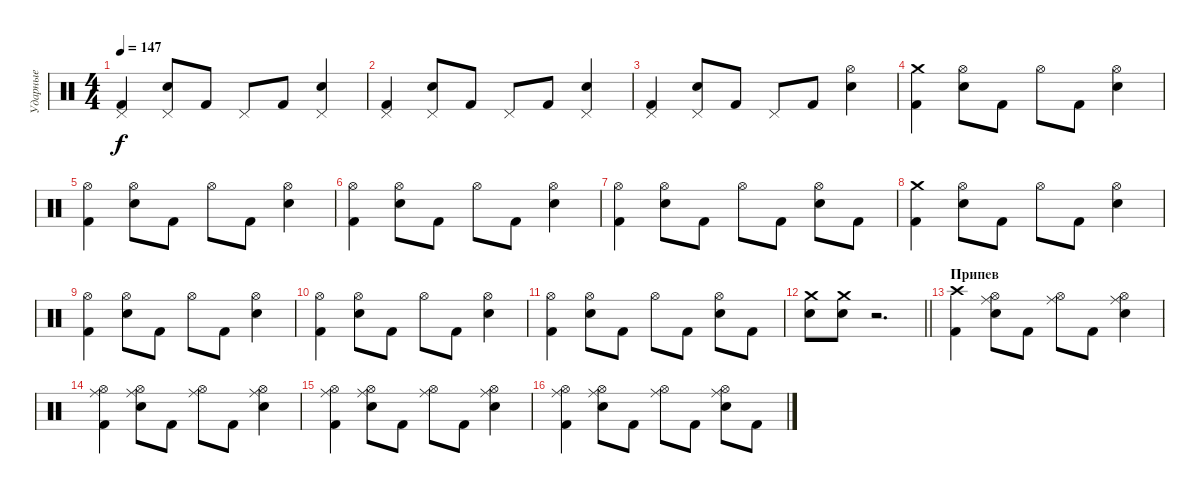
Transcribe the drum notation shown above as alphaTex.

\track ("Ударные" "Ударные") {instrument percussion}
\staff {score}
\articulation defaults
\ts (4 4)
\tempo 147
\clef neutral
\ks c
("Pedal Hi-Hat (hit)" "Kick (hit) 2").4{dy f} ("Pedal Hi-Hat (hit)" "Snare (hit) 2").8 "Kick (hit) 2".8 "Pedal Hi-Hat (hit)".8 "Kick (hit) 2".8 ("Pedal Hi-Hat (hit)" "Snare (hit) 2").4 |
("Pedal Hi-Hat (hit)" "Kick (hit) 2").4 ("Pedal Hi-Hat (hit)" "Snare (hit) 2").8 "Kick (hit) 2".8 "Pedal Hi-Hat (hit)".8 "Kick (hit) 2".8 ("Pedal Hi-Hat (hit)" "Snare (hit) 2").4 |
("Pedal Hi-Hat (hit)" "Kick (hit) 2").4 ("Pedal Hi-Hat (hit)" "Snare (hit) 2").8 "Kick (hit) 2".8 "Pedal Hi-Hat (hit)".8 "Kick (hit) 2".8 ("Hi-Hat (open)" "Snare (hit) 2").4 |
("Crash medium (hit)" "Kick (hit) 2").4 ("Hi-Hat (open)" "Snare (hit) 2").8 "Kick (hit) 2".8 "Hi-Hat (open)".8 "Kick (hit) 2".8 ("Hi-Hat (open)" "Snare (hit) 2").4 |
("Hi-Hat (open)" "Kick (hit) 2").4 ("Hi-Hat (open)" "Snare (hit) 2").8 "Kick (hit) 2".8 "Hi-Hat (open)".8 "Kick (hit) 2".8 ("Hi-Hat (open)" "Snare (hit) 2").4 |
("Hi-Hat (open)" "Kick (hit) 2").4 ("Hi-Hat (open)" "Snare (hit) 2").8 "Kick (hit) 2".8 "Hi-Hat (open)".8 "Kick (hit) 2".8 ("Hi-Hat (open)" "Snare (hit) 2").4 |
("Hi-Hat (open)" "Kick (hit) 2").4 ("Hi-Hat (open)" "Snare (hit) 2").8 "Kick (hit) 2".8 "Hi-Hat (open)".8 "Kick (hit) 2".8 ("Hi-Hat (open)" "Snare (hit) 2").8 "Kick (hit) 2".8 |
("Crash medium (hit)" "Kick (hit) 2").4 ("Hi-Hat (open)" "Snare (hit) 2").8 "Kick (hit) 2".8 "Hi-Hat (open)".8 "Kick (hit) 2".8 ("Hi-Hat (open)" "Snare (hit) 2").4 |
("Hi-Hat (open)" "Kick (hit) 2").4 ("Hi-Hat (open)" "Snare (hit) 2").8 "Kick (hit) 2".8 "Hi-Hat (open)".8 "Kick (hit) 2".8 ("Hi-Hat (open)" "Snare (hit) 2").4 |
("Hi-Hat (open)" "Kick (hit) 2").4 ("Hi-Hat (open)" "Snare (hit) 2").8 "Kick (hit) 2".8 "Hi-Hat (open)".8 "Kick (hit) 2".8 ("Hi-Hat (open)" "Snare (hit) 2").4 |
("Hi-Hat (open)" "Kick (hit) 2").4 ("Hi-Hat (open)" "Snare (hit) 2").8 "Kick (hit) 2".8 "Hi-Hat (open)".8 "Kick (hit) 2".8 ("Hi-Hat (open)" "Snare (hit) 2").8 "Kick (hit) 2".8 |
\barLineRight lightlight
("Crash medium (hit)" "Snare (hit) 2").8 ("Crash medium (hit)" "Snare (hit) 2").8 r.2{d} |
\section ("" "Припев")
("Crash high (hit)" "Kick (hit) 2").4 ("Ride (middle)" "Hi-Hat (open)" "Snare (hit) 2").8 "Kick (hit) 2".8 ("Ride (middle)" "Hi-Hat (open)").8 "Kick (hit) 2".8 ("Ride (middle)" "Hi-Hat (open)" "Snare (hit) 2").4 |
("Ride (middle)" "Hi-Hat (open)" "Kick (hit) 2").4 ("Ride (middle)" "Hi-Hat (open)" "Snare (hit) 2").8 "Kick (hit) 2".8 ("Ride (middle)" "Hi-Hat (open)").8 "Kick (hit) 2".8 ("Ride (middle)" "Hi-Hat (open)" "Snare (hit) 2").4 |
("Ride (middle)" "Hi-Hat (open)" "Kick (hit) 2").4 ("Ride (middle)" "Hi-Hat (open)" "Snare (hit) 2").8 "Kick (hit) 2".8 ("Ride (middle)" "Hi-Hat (open)").8 "Kick (hit) 2".8 ("Ride (middle)" "Hi-Hat (open)" "Snare (hit) 2").4 |
("Ride (middle)" "Hi-Hat (open)" "Kick (hit) 2").4 ("Ride (middle)" "Hi-Hat (open)" "Snare (hit) 2").8 "Kick (hit) 2".8 ("Ride (middle)" "Hi-Hat (open)").8 "Kick (hit) 2".8 ("Ride (middle)" "Hi-Hat (open)" "Snare (hit) 2").8 "Kick (hit) 2".8
